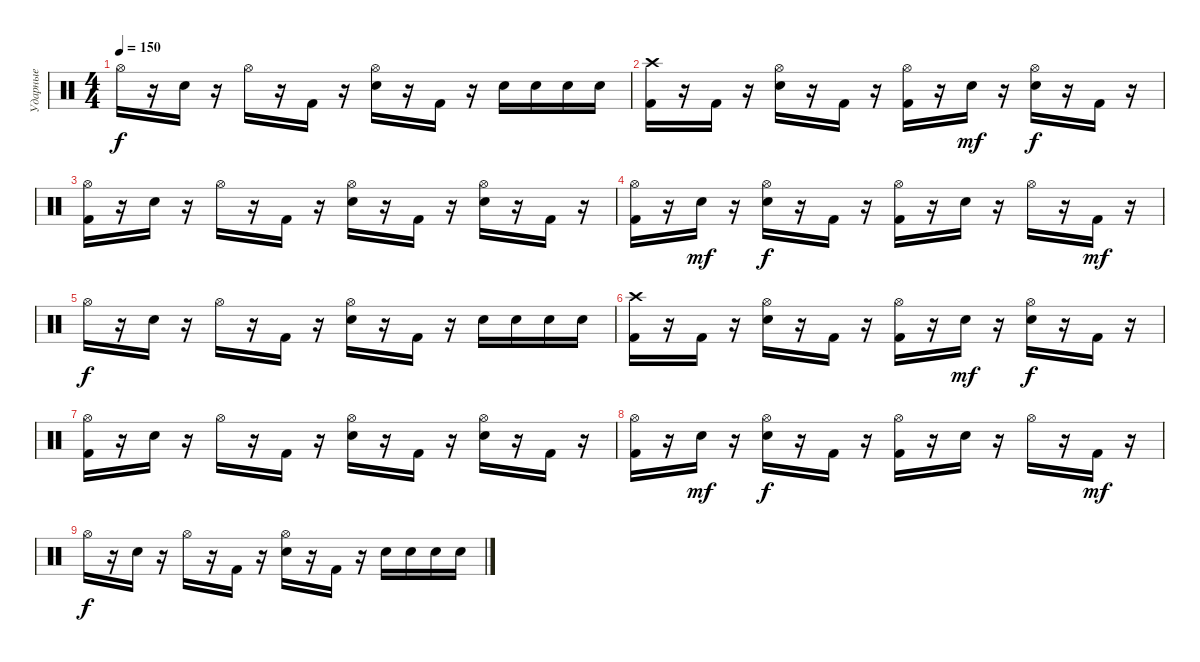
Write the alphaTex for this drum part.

\track ("Ударные" "Ударные") {instrument percussion}
\staff {score}
\articulation defaults
\ts (4 4)
\tempo 150
\clef neutral
\ks c "Hi-Hat (open)".16{dy f}
r.16 "Electric Snare (hit)".16 r.16 "Hi-Hat (open)".16 r.16 "Kick (hit) 2".16 r.16 ("Hi-Hat (open)" "Electric Snare (hit)").16 r.16 "Kick (hit) 2".16 r.16 "Electric Snare (hit)".16 "Electric Snare (hit)".16 "Electric Snare (hit)".16 "Electric Snare (hit)".16 |
("Crash high (hit)" "Kick (hit) 2").16 r.16 "Kick (hit) 2".16 r.16 ("Hi-Hat (open)" "Electric Snare (hit)").16 r.16 "Kick (hit) 2".16 r.16 ("Hi-Hat (open)" "Kick (hit) 2").16 r.16 "Electric Snare (hit)".16{dy mf} r.16 ("Hi-Hat (open)" "Electric Snare (hit)").16{dy f} r.16 "Kick (hit) 2".16 r.16 |
("Hi-Hat (open)" "Kick (hit) 2").16 r.16 "Electric Snare (hit)".16 r.16 "Hi-Hat (open)".16 r.16 "Kick (hit) 2".16 r.16 ("Hi-Hat (open)" "Electric Snare (hit)").16 r.16 "Kick (hit) 2".16 r.16 ("Hi-Hat (open)" "Electric Snare (hit)").16 r.16 "Kick (hit) 2".16 r.16 |
("Hi-Hat (open)" "Kick (hit) 2").16 r.16 "Electric Snare (hit)".16{dy mf} r.16 ("Hi-Hat (open)" "Electric Snare (hit)").16{dy f} r.16 "Kick (hit) 2".16 r.16 ("Hi-Hat (open)" "Kick (hit) 2").16 r.16 "Electric Snare (hit)".16 r.16 "Hi-Hat (open)".16 r.16 "Kick (hit) 2".16{dy mf} r.16 |
"Hi-Hat (open)".16{dy f} r.16 "Electric Snare (hit)".16 r.16 "Hi-Hat (open)".16 r.16 "Kick (hit) 2".16 r.16 ("Hi-Hat (open)" "Electric Snare (hit)").16 r.16 "Kick (hit) 2".16 r.16 "Electric Snare (hit)".16 "Electric Snare (hit)".16 "Electric Snare (hit)".16 "Electric Snare (hit)".16 |
("Crash high (hit)" "Kick (hit) 2").16 r.16 "Kick (hit) 2".16 r.16 ("Hi-Hat (open)" "Electric Snare (hit)").16 r.16 "Kick (hit) 2".16 r.16 ("Hi-Hat (open)" "Kick (hit) 2").16 r.16 "Electric Snare (hit)".16{dy mf} r.16 ("Hi-Hat (open)" "Electric Snare (hit)").16{dy f} r.16 "Kick (hit) 2".16 r.16 |
("Hi-Hat (open)" "Kick (hit) 2").16 r.16 "Electric Snare (hit)".16 r.16 "Hi-Hat (open)".16 r.16 "Kick (hit) 2".16 r.16 ("Hi-Hat (open)" "Electric Snare (hit)").16 r.16 "Kick (hit) 2".16 r.16 ("Hi-Hat (open)" "Electric Snare (hit)").16 r.16 "Kick (hit) 2".16 r.16 |
("Hi-Hat (open)" "Kick (hit) 2").16 r.16 "Electric Snare (hit)".16{dy mf} r.16 ("Hi-Hat (open)" "Electric Snare (hit)").16{dy f} r.16 "Kick (hit) 2".16 r.16 ("Hi-Hat (open)" "Kick (hit) 2").16 r.16 "Electric Snare (hit)".16 r.16 "Hi-Hat (open)".16 r.16 "Kick (hit) 2".16{dy mf} r.16 |
"Hi-Hat (open)".16{dy f} r.16 "Electric Snare (hit)".16 r.16 "Hi-Hat (open)".16 r.16 "Kick (hit) 2".16 r.16 ("Hi-Hat (open)" "Electric Snare (hit)").16 r.16 "Kick (hit) 2".16 r.16 "Electric Snare (hit)".16 "Electric Snare (hit)".16 "Electric Snare (hit)".16 "Electric Snare (hit)".16
